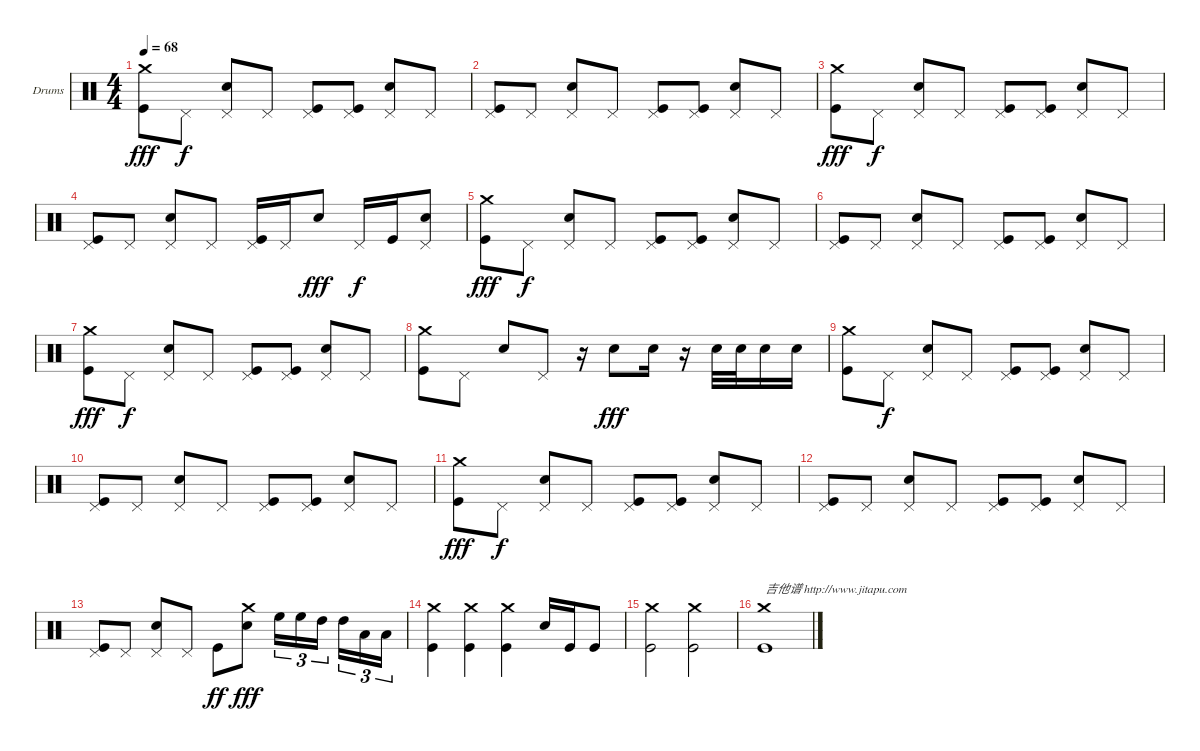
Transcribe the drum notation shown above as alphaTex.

\bracketExtendMode groupsimilarinstruments
\firstSystemTrackNameOrientation horizontal
\otherSystemsTrackNameOrientation horizontal
\track ("Drumkit" "Drums") {instrument percussion}
\staff {score}
\articulation defaults
\ts (4 4)
\tempo 68
\clef neutral
\ks c
("Crash medium (hit)" "Kick (hit)").8{dy fff} "Pedal Hi-Hat (hit)".8{dy f} ("Pedal Hi-Hat (hit)" "Snare (hit) 2").8 "Pedal Hi-Hat (hit)".8 ("Pedal Hi-Hat (hit)" "Kick (hit)").8 ("Pedal Hi-Hat (hit)" "Kick (hit)").8 ("Pedal Hi-Hat (hit)" "Snare (hit) 2").8 "Pedal Hi-Hat (hit)".8 |
("Pedal Hi-Hat (hit)" "Kick (hit)").8 "Pedal Hi-Hat (hit)".8 ("Pedal Hi-Hat (hit)" "Snare (hit) 2").8 "Pedal Hi-Hat (hit)".8 ("Pedal Hi-Hat (hit)" "Kick (hit)").8 ("Pedal Hi-Hat (hit)" "Kick (hit)").8 ("Pedal Hi-Hat (hit)" "Snare (hit) 2").8 "Pedal Hi-Hat (hit)".8 |
("Crash medium (hit)" "Kick (hit)").8{dy fff} "Pedal Hi-Hat (hit)".8{dy f} ("Pedal Hi-Hat (hit)" "Snare (hit) 2").8 "Pedal Hi-Hat (hit)".8 ("Pedal Hi-Hat (hit)" "Kick (hit)").8 ("Pedal Hi-Hat (hit)" "Kick (hit)").8 ("Pedal Hi-Hat (hit)" "Snare (hit) 2").8 "Pedal Hi-Hat (hit)".8 |
("Pedal Hi-Hat (hit)" "Kick (hit)").8 "Pedal Hi-Hat (hit)".8 ("Pedal Hi-Hat (hit)" "Snare (hit) 2").8 "Pedal Hi-Hat (hit)".8 ("Pedal Hi-Hat (hit)" "Kick (hit)").16 "Pedal Hi-Hat (hit)".16 "Snare (hit) 2".8{dy fff} "Pedal Hi-Hat (hit)".16{dy f} "Kick (hit)".16 ("Pedal Hi-Hat (hit)" "Snare (hit) 2").8 |
("Crash medium (hit)" "Kick (hit)").8{dy fff} "Pedal Hi-Hat (hit)".8{dy f} ("Pedal Hi-Hat (hit)" "Snare (hit) 2").8 "Pedal Hi-Hat (hit)".8 ("Pedal Hi-Hat (hit)" "Kick (hit)").8 ("Pedal Hi-Hat (hit)" "Kick (hit)").8 ("Pedal Hi-Hat (hit)" "Snare (hit) 2").8 "Pedal Hi-Hat (hit)".8 |
("Pedal Hi-Hat (hit)" "Kick (hit)").8 "Pedal Hi-Hat (hit)".8 ("Pedal Hi-Hat (hit)" "Snare (hit) 2").8 "Pedal Hi-Hat (hit)".8 ("Pedal Hi-Hat (hit)" "Kick (hit)").8 ("Pedal Hi-Hat (hit)" "Kick (hit)").8 ("Pedal Hi-Hat (hit)" "Snare (hit) 2").8 "Pedal Hi-Hat (hit)".8 |
("Crash medium (hit)" "Kick (hit)").8{dy fff} "Pedal Hi-Hat (hit)".8{dy f} ("Pedal Hi-Hat (hit)" "Snare (hit) 2").8 "Pedal Hi-Hat (hit)".8 ("Pedal Hi-Hat (hit)" "Kick (hit)").8 ("Pedal Hi-Hat (hit)" "Kick (hit)").8 ("Pedal Hi-Hat (hit)" "Snare (hit) 2").8 "Pedal Hi-Hat (hit)".8 |
("Crash medium (hit)" "Kick (hit)").8 "Pedal Hi-Hat (hit)".8 "Snare (hit) 2".8 "Pedal Hi-Hat (hit)".8 r.16 "Snare (hit) 2".8{dy fff} "Snare (hit) 2".16 r.16 "Snare (hit) 2".32 "Snare (hit) 2".32 "Snare (hit) 2".16 "Snare (hit) 2".16 |
("Crash medium (hit)" "Kick (hit)").8 "Pedal Hi-Hat (hit)".8{dy f} ("Pedal Hi-Hat (hit)" "Snare (hit) 2").8 "Pedal Hi-Hat (hit)".8 ("Pedal Hi-Hat (hit)" "Kick (hit)").8 ("Pedal Hi-Hat (hit)" "Kick (hit)").8 ("Pedal Hi-Hat (hit)" "Snare (hit) 2").8 "Pedal Hi-Hat (hit)".8 |
("Pedal Hi-Hat (hit)" "Kick (hit)").8 "Pedal Hi-Hat (hit)".8 ("Pedal Hi-Hat (hit)" "Snare (hit) 2").8 "Pedal Hi-Hat (hit)".8 ("Pedal Hi-Hat (hit)" "Kick (hit)").8 ("Pedal Hi-Hat (hit)" "Kick (hit)").8 ("Pedal Hi-Hat (hit)" "Snare (hit) 2").8 "Pedal Hi-Hat (hit)".8 |
("Crash medium (hit)" "Kick (hit)").8{dy fff} "Pedal Hi-Hat (hit)".8{dy f} ("Pedal Hi-Hat (hit)" "Snare (hit) 2").8 "Pedal Hi-Hat (hit)".8 ("Pedal Hi-Hat (hit)" "Kick (hit)").8 ("Pedal Hi-Hat (hit)" "Kick (hit)").8 ("Pedal Hi-Hat (hit)" "Snare (hit) 2").8 "Pedal Hi-Hat (hit)".8 |
("Pedal Hi-Hat (hit)" "Kick (hit)").8 "Pedal Hi-Hat (hit)".8 ("Pedal Hi-Hat (hit)" "Snare (hit) 2").8 "Pedal Hi-Hat (hit)".8 ("Pedal Hi-Hat (hit)" "Kick (hit)").8 ("Pedal Hi-Hat (hit)" "Kick (hit)").8 ("Pedal Hi-Hat (hit)" "Snare (hit) 2").8 "Pedal Hi-Hat (hit)".8 |
("Pedal Hi-Hat (hit)" "Kick (hit)").8 "Pedal Hi-Hat (hit)".8 ("Pedal Hi-Hat (hit)" "Snare (hit) 2").8 "Pedal Hi-Hat (hit)".8 "Kick (hit)".8{dy ff} ("Crash medium (hit)" "Snare (hit) 2").8{dy fff} "High Floor Tom (hit)".16{tu (3 2)} "High Floor Tom (hit)".16{tu (3 2)} "High Tom (hit)".16{tu (3 2)} "High Tom (hit)".16{tu (3 2)} "Low Tom (hit)".16{tu (3 2)} "Low Tom (hit)".16{tu (3 2)} |
("Crash medium (hit)" "Kick (hit)").4 ("Crash medium (hit)" "Kick (hit)").4 ("Crash medium (hit)" "Kick (hit)").4 "Snare (hit) 2".16 "Kick (hit)".16 "Kick (hit)".8 |
("Crash medium (hit)" "Kick (hit)").2 ("Crash medium (hit)" "Kick (hit)").2 |
("Crash medium (hit)" "Kick (hit)").1{txt "吉他谱 http://www.jitapu.com"}
